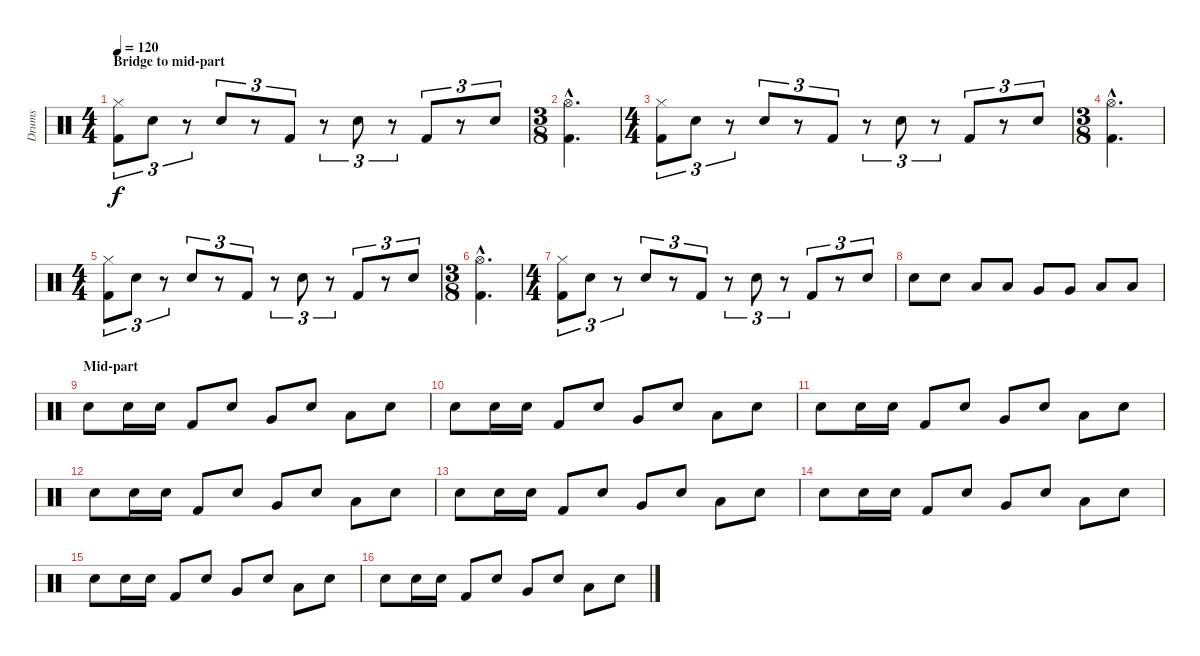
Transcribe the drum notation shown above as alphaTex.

\track ("Drums" "Drums") {instrument percussion}
\staff {score}
\articulation defaults
\ts (4 4)
\section ("" "Bridge to mid-part")
\tempo 120
\clef neutral
\ks c
("Hi-Hat (closed)" "Kick (hit) 2").8{tu (3 2) dy f} "Electric Snare (hit)".8{tu (3 2)} r.8{tu (3 2)} "Electric Snare (hit)".8{tu (3 2)} r.8{tu (3 2)} "Kick (hit) 2".8{tu (3 2)} r.8{tu (3 2)} "Electric Snare (hit)".8{tu (3 2)} r.8{tu (3 2)} "Kick (hit) 2".8{tu (3 2)} r.8{tu (3 2)} "Electric Snare (hit)".8{tu (3 2)} |
\ts (3 8)
("Hi-Hat (open)"{hac} "Kick (hit) 2"{hac}).4{d} |
\ts (4 4)
("Hi-Hat (closed)" "Kick (hit) 2").8{tu (3 2)} "Electric Snare (hit)".8{tu (3 2)} r.8{tu (3 2)} "Electric Snare (hit)".8{tu (3 2)} r.8{tu (3 2)} "Kick (hit) 2".8{tu (3 2)} r.8{tu (3 2)} "Electric Snare (hit)".8{tu (3 2)} r.8{tu (3 2)} "Kick (hit) 2".8{tu (3 2)} r.8{tu (3 2)} "Electric Snare (hit)".8{tu (3 2)} |
\ts (3 8)
("Hi-Hat (open)"{hac} "Kick (hit) 2"{hac}).4{d} |
\ts (4 4)
("Hi-Hat (closed)" "Kick (hit) 2").8{tu (3 2)} "Electric Snare (hit)".8{tu (3 2)} r.8{tu (3 2)} "Electric Snare (hit)".8{tu (3 2)} r.8{tu (3 2)} "Kick (hit) 2".8{tu (3 2)} r.8{tu (3 2)} "Electric Snare (hit)".8{tu (3 2)} r.8{tu (3 2)} "Kick (hit) 2".8{tu (3 2)} r.8{tu (3 2)} "Electric Snare (hit)".8{tu (3 2)} |
\ts (3 8)
("Hi-Hat (open)"{hac} "Kick (hit) 2"{hac}).4{d} |
\ts (4 4)
("Hi-Hat (closed)" "Kick (hit) 2").8{tu (3 2)} "Electric Snare (hit)".8{tu (3 2)} r.8{tu (3 2)} "Electric Snare (hit)".8{tu (3 2)} r.8{tu (3 2)} "Kick (hit) 2".8{tu (3 2)} r.8{tu (3 2)} "Electric Snare (hit)".8{tu (3 2)} r.8{tu (3 2)} "Kick (hit) 2".8{tu (3 2)} r.8{tu (3 2)} "Electric Snare (hit)".8{tu (3 2)} |
"Electric Snare (hit)".8 "Electric Snare (hit)".8 "Low Tom (hit)".8 "Low Tom (hit)".8 "Very Low Tom (hit)".8 "Very Low Tom (hit)".8 "Low Floor Tom (hit)".8 "Low Floor Tom (hit)".8 |
\section ("" "Mid-part")
"Electric Snare (hit)".8 "Electric Snare (hit)".16 "Electric Snare (hit)".16 "Kick (hit) 2".8 "Electric Snare (hit)".8 "Very Low Tom (hit)".8 "Electric Snare (hit)".8 "Low Tom (hit)".8 "Electric Snare (hit)".8 |
"Electric Snare (hit)".8 "Electric Snare (hit)".16 "Electric Snare (hit)".16 "Kick (hit) 2".8 "Electric Snare (hit)".8 "Very Low Tom (hit)".8 "Electric Snare (hit)".8 "Low Tom (hit)".8 "Electric Snare (hit)".8 |
"Electric Snare (hit)".8 "Electric Snare (hit)".16 "Electric Snare (hit)".16 "Kick (hit) 2".8 "Electric Snare (hit)".8 "Very Low Tom (hit)".8 "Electric Snare (hit)".8 "Low Tom (hit)".8 "Electric Snare (hit)".8 |
"Electric Snare (hit)".8 "Electric Snare (hit)".16 "Electric Snare (hit)".16 "Kick (hit) 2".8 "Electric Snare (hit)".8 "Very Low Tom (hit)".8 "Electric Snare (hit)".8 "Low Tom (hit)".8 "Electric Snare (hit)".8 |
"Electric Snare (hit)".8 "Electric Snare (hit)".16 "Electric Snare (hit)".16 "Kick (hit) 2".8 "Electric Snare (hit)".8 "Very Low Tom (hit)".8 "Electric Snare (hit)".8 "Low Tom (hit)".8 "Electric Snare (hit)".8 |
"Electric Snare (hit)".8 "Electric Snare (hit)".16 "Electric Snare (hit)".16 "Kick (hit) 2".8 "Electric Snare (hit)".8 "Very Low Tom (hit)".8 "Electric Snare (hit)".8 "Low Tom (hit)".8 "Electric Snare (hit)".8 |
"Electric Snare (hit)".8 "Electric Snare (hit)".16 "Electric Snare (hit)".16 "Kick (hit) 2".8 "Electric Snare (hit)".8 "Very Low Tom (hit)".8 "Electric Snare (hit)".8 "Low Tom (hit)".8 "Electric Snare (hit)".8 |
"Electric Snare (hit)".8 "Electric Snare (hit)".16 "Electric Snare (hit)".16 "Kick (hit) 2".8 "Electric Snare (hit)".8 "Very Low Tom (hit)".8 "Electric Snare (hit)".8 "Low Tom (hit)".8 "Electric Snare (hit)".8
